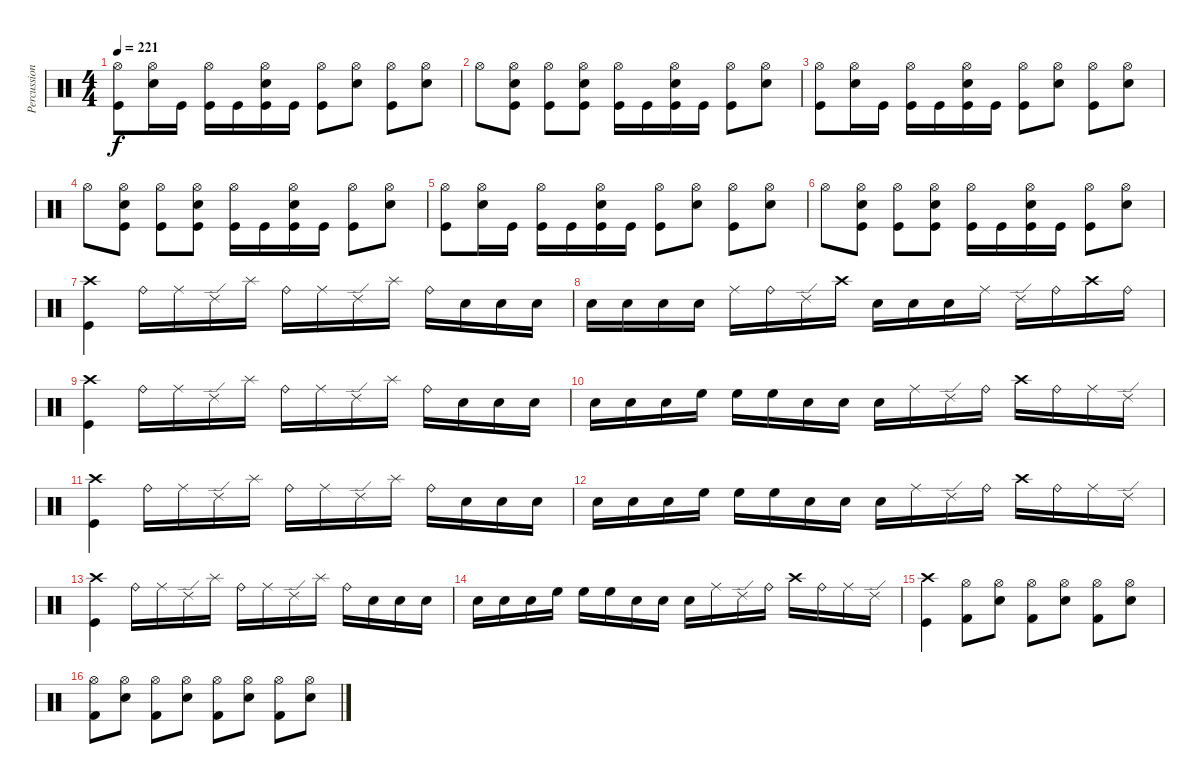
\track ("Percussion" "Percussion") {instrument percussion}
\staff {score}
\articulation defaults
\ts (4 4)
\tempo 221
\clef neutral
\ks c
("Hi-Hat (open)" "Kick (hit)").8{dy f} ("Hi-Hat (open)" "Electric Snare (hit)").16 "Kick (hit)".16 ("Hi-Hat (open)" "Kick (hit)").16 "Kick (hit)".16 ("Hi-Hat (open)" "Electric Snare (hit)" "Kick (hit)").16 "Kick (hit)".16 ("Hi-Hat (open)" "Kick (hit)").8 ("Hi-Hat (open)" "Electric Snare (hit)").8 ("Hi-Hat (open)" "Kick (hit)").8 ("Hi-Hat (open)" "Electric Snare (hit)").8 |
"Hi-Hat (open)".8 ("Hi-Hat (open)" "Electric Snare (hit)" "Kick (hit)").8 ("Hi-Hat (open)" "Kick (hit)").8 ("Hi-Hat (open)" "Electric Snare (hit)" "Kick (hit)").8 ("Hi-Hat (open)" "Kick (hit)").16 "Kick (hit)".16 ("Hi-Hat (open)" "Electric Snare (hit)" "Kick (hit)").16 "Kick (hit)".16 ("Hi-Hat (open)" "Kick (hit)").8 ("Hi-Hat (open)" "Electric Snare (hit)").8 |
("Hi-Hat (open)" "Kick (hit)").8 ("Hi-Hat (open)" "Electric Snare (hit)").16 "Kick (hit)".16 ("Hi-Hat (open)" "Kick (hit)").16 "Kick (hit)".16 ("Hi-Hat (open)" "Electric Snare (hit)" "Kick (hit)").16 "Kick (hit)".16 ("Hi-Hat (open)" "Kick (hit)").8 ("Hi-Hat (open)" "Electric Snare (hit)").8 ("Hi-Hat (open)" "Kick (hit)").8 ("Hi-Hat (open)" "Electric Snare (hit)").8 |
"Hi-Hat (open)".8 ("Hi-Hat (open)" "Electric Snare (hit)" "Kick (hit)").8 ("Hi-Hat (open)" "Kick (hit)").8 ("Hi-Hat (open)" "Electric Snare (hit)" "Kick (hit)").8 ("Hi-Hat (open)" "Kick (hit)").16 "Kick (hit)".16 ("Hi-Hat (open)" "Electric Snare (hit)" "Kick (hit)").16 "Kick (hit)".16 ("Hi-Hat (open)" "Kick (hit)").8 ("Hi-Hat (open)" "Electric Snare (hit)").8 |
("Hi-Hat (open)" "Kick (hit)").8 ("Hi-Hat (open)" "Electric Snare (hit)").16 "Kick (hit)".16 ("Hi-Hat (open)" "Kick (hit)").16 "Kick (hit)".16 ("Hi-Hat (open)" "Electric Snare (hit)" "Kick (hit)").16 "Kick (hit)".16 ("Hi-Hat (open)" "Kick (hit)").8 ("Hi-Hat (open)" "Electric Snare (hit)").8 ("Hi-Hat (open)" "Kick (hit)").8 ("Hi-Hat (open)" "Electric Snare (hit)").8 |
"Hi-Hat (open)".8 ("Hi-Hat (open)" "Electric Snare (hit)" "Kick (hit)").8 ("Hi-Hat (open)" "Kick (hit)").8 ("Hi-Hat (open)" "Electric Snare (hit)" "Kick (hit)").8 ("Hi-Hat (open)" "Kick (hit)").16 "Kick (hit)".16 ("Hi-Hat (open)" "Electric Snare (hit)" "Kick (hit)").16 "Kick (hit)".16 ("Hi-Hat (open)" "Kick (hit)").8 ("Hi-Hat (open)" "Electric Snare (hit)").8 |
("Crash high (hit)" "Kick (hit)").4 "Ride (bell)".16 "Ride (middle)".16 "Ride (edge) 2".16 "Splash (hit)".16 "Ride (bell)".16 "Ride (middle)".16 "Ride (edge) 2".16 "Splash (hit)".16 "Ride (bell)".16 "Electric Snare (hit)".16 "Electric Snare (hit)".16 "Electric Snare (hit)".16 |
"Electric Snare (hit)".16 "Electric Snare (hit)".16 "Electric Snare (hit)".16 "Electric Snare (hit)".16 "Ride (middle)".16 "Ride (bell)".16 "Ride (edge) 2".16 "Crash high (hit)".16 "Electric Snare (hit)".16 "Electric Snare (hit)".16 "Electric Snare (hit)".16 "Ride (middle)".16 "Ride (edge) 2".16 "Ride (bell)".16 "Crash high (hit)".16 "Ride (bell)".16 |
("Crash high (hit)" "Kick (hit)").4 "Ride (bell)".16 "Ride (middle)".16 "Ride (edge) 2".16 "Splash (hit)".16 "Ride (bell)".16 "Ride (middle)".16 "Ride (edge) 2".16 "Splash (hit)".16 "Ride (bell)".16 "Electric Snare (hit)".16 "Electric Snare (hit)".16 "Electric Snare (hit)".16 |
"Electric Snare (hit)".16 "Electric Snare (hit)".16 "Electric Snare (hit)".16 "High Floor Tom (hit)".16 "High Floor Tom (hit)".16 "High Floor Tom (hit)".16 "Electric Snare (hit)".16 "Electric Snare (hit)".16 "Electric Snare (hit)".16 "Ride (middle)".16 "Ride (edge) 2".16 "Ride (bell)".16 "Crash high (hit)".16 "Ride (bell)".16 "Ride (middle)".16 "Ride (edge) 2".16 |
("Crash high (hit)" "Kick (hit)").4 "Ride (bell)".16 "Ride (middle)".16 "Ride (edge) 2".16 "Splash (hit)".16 "Ride (bell)".16 "Ride (middle)".16 "Ride (edge) 2".16 "Splash (hit)".16 "Ride (bell)".16 "Electric Snare (hit)".16 "Electric Snare (hit)".16 "Electric Snare (hit)".16 |
"Electric Snare (hit)".16 "Electric Snare (hit)".16 "Electric Snare (hit)".16 "High Floor Tom (hit)".16 "High Floor Tom (hit)".16 "High Floor Tom (hit)".16 "Electric Snare (hit)".16 "Electric Snare (hit)".16 "Electric Snare (hit)".16 "Ride (middle)".16 "Ride (edge) 2".16 "Ride (bell)".16 "Crash high (hit)".16 "Ride (bell)".16 "Ride (middle)".16 "Ride (edge) 2".16 |
("Crash high (hit)" "Kick (hit)").4 "Ride (bell)".16 "Ride (middle)".16 "Ride (edge) 2".16 "Splash (hit)".16 "Ride (bell)".16 "Ride (middle)".16 "Ride (edge) 2".16 "Splash (hit)".16 "Ride (bell)".16 "Electric Snare (hit)".16 "Electric Snare (hit)".16 "Electric Snare (hit)".16 |
"Electric Snare (hit)".16 "Electric Snare (hit)".16 "Electric Snare (hit)".16 "High Floor Tom (hit)".16 "High Floor Tom (hit)".16 "High Floor Tom (hit)".16 "Electric Snare (hit)".16 "Electric Snare (hit)".16 "Electric Snare (hit)".16 "Ride (middle)".16 "Ride (edge) 2".16 "Ride (bell)".16 "Crash high (hit)".16 "Ride (bell)".16 "Ride (middle)".16 "Ride (edge) 2".16 |
("Crash high (hit)" "Kick (hit)").4 ("Hi-Hat (open)" "Kick (hit) 2").8 ("Hi-Hat (open)" "Electric Snare (hit)").8 ("Hi-Hat (open)" "Kick (hit) 2").8 ("Hi-Hat (open)" "Electric Snare (hit)").8 ("Hi-Hat (open)" "Kick (hit) 2").8 ("Hi-Hat (open)" "Electric Snare (hit)").8 |
("Hi-Hat (open)" "Kick (hit) 2").8 ("Hi-Hat (open)" "Electric Snare (hit)").8 ("Hi-Hat (open)" "Kick (hit) 2").8 ("Hi-Hat (open)" "Electric Snare (hit)").8 ("Hi-Hat (open)" "Kick (hit) 2").8 ("Hi-Hat (open)" "Electric Snare (hit)").8 ("Hi-Hat (open)" "Kick (hit) 2").8 ("Hi-Hat (open)" "Electric Snare (hit)").8
